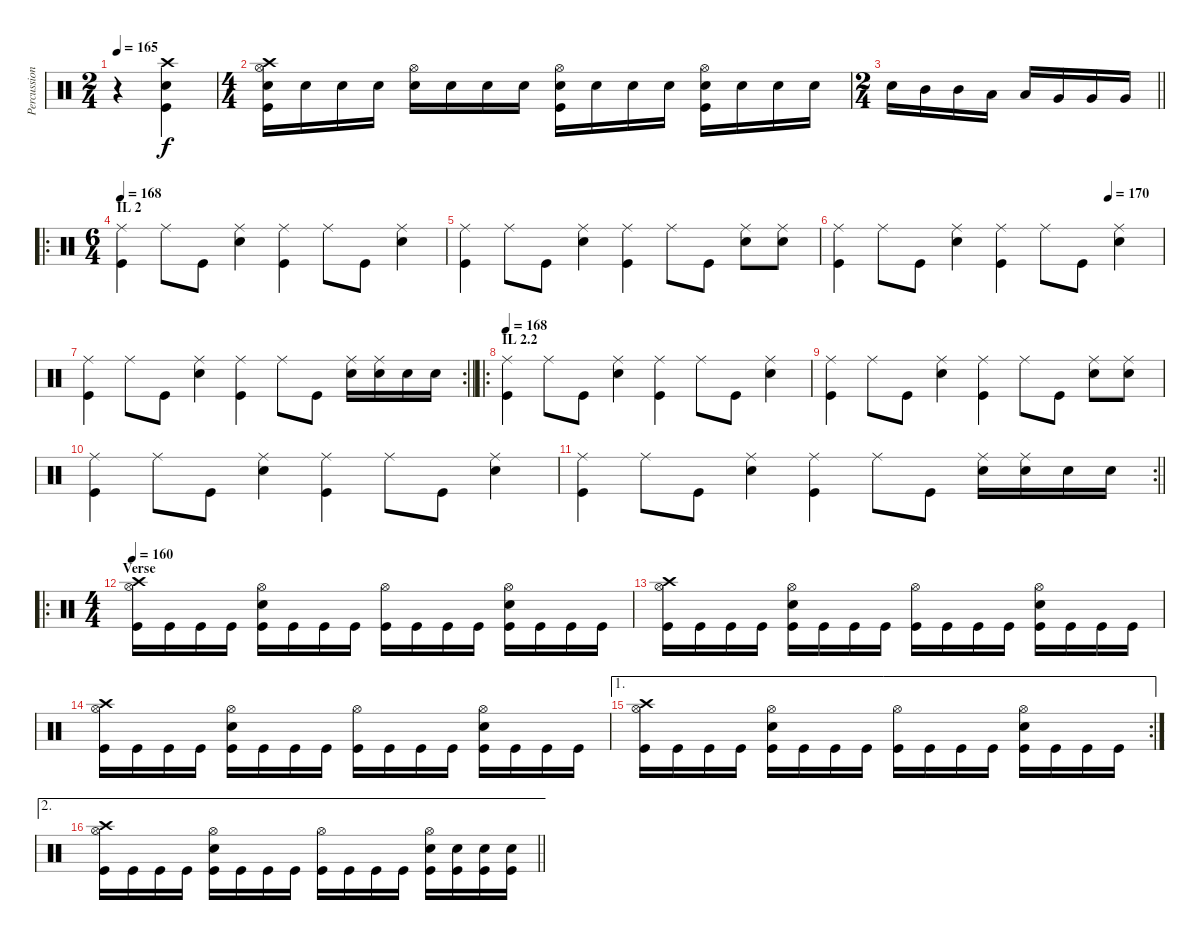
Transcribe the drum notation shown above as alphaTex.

\track ("Percussion" "Percussion") {instrument percussion}
\staff {score}
\articulation defaults
\ts (2 4)
\tempo 165
\clef neutral
\ks c
r.4{dy f} ("Crash high (hit)" "Electric Snare (hit)" "Kick (hit)").4 |
\ts (4 4)
("Crash high (hit)" "Hi-Hat (open)" "Electric Snare (hit)" "Kick (hit)").16 "Electric Snare (hit)".16 "Electric Snare (hit)".16 "Electric Snare (hit)".16 ("Hi-Hat (open)" "Electric Snare (hit)").16 "Electric Snare (hit)".16 "Electric Snare (hit)".16 "Electric Snare (hit)".16 ("Hi-Hat (open)" "Electric Snare (hit)" "Kick (hit)").16 "Electric Snare (hit)".16 "Electric Snare (hit)".16 "Electric Snare (hit)".16 ("Hi-Hat (open)" "Electric Snare (hit)" "Kick (hit)").16 "Electric Snare (hit)".16 "Electric Snare (hit)".16 "Electric Snare (hit)".16 |
\ts (2 4)
\barLineRight lightlight "Electric Snare (hit)".16 "Mid Tom (hit)".16 "Mid Tom (hit)".16 "Low Tom (hit)".16 "Low Tom (hit)".16 "Very Low Tom (hit)".16 "Very Low Tom (hit)".16 "Very Low Tom (hit)".16
|
\ro
\ts (6 4)
\section ("" "IL 2")
\tempo 168
("Ride (middle)" "Kick (hit)").4 "Ride (middle)".8 "Kick (hit)".8 ("Ride (middle)" "Electric Snare (hit)").4 ("Ride (middle)" "Kick (hit)").4 "Ride (middle)".8 "Kick (hit)".8 ("Ride (middle)" "Electric Snare (hit)").4 |
("Ride (middle)" "Kick (hit)").4 "Ride (middle)".8 "Kick (hit)".8 ("Ride (middle)" "Electric Snare (hit)").4 ("Ride (middle)" "Kick (hit)").4 "Ride (middle)".8 "Kick (hit)".8 ("Ride (middle)" "Electric Snare (hit)").8 ("Ride (middle)" "Electric Snare (hit)").8 |
\tempo (170 0.8333333333333334)
("Ride (middle)" "Kick (hit)").4 "Ride (middle)".8 "Kick (hit)".8 ("Ride (middle)" "Electric Snare (hit)").4 ("Ride (middle)" "Kick (hit)").4 "Ride (middle)".8 "Kick (hit)".8 ("Ride (middle)" "Electric Snare (hit)").4 |
\rc 2
\barLineRight lightlight
("Ride (middle)" "Kick (hit)").4 "Ride (middle)".8 "Kick (hit)".8 ("Ride (middle)" "Electric Snare (hit)").4 ("Ride (middle)" "Kick (hit)").4 "Ride (middle)".8 "Kick (hit)".8 ("Ride (middle)" "Electric Snare (hit)").16 ("Ride (middle)" "Electric Snare (hit)").16 "Electric Snare (hit)".16 "Electric Snare (hit)".16 |
\ro
\section ("" "IL 2.2")
\tempo 168
("Ride (middle)" "Kick (hit)").4 "Ride (middle)".8 "Kick (hit)".8 ("Ride (middle)" "Electric Snare (hit)").4 ("Ride (middle)" "Kick (hit)").4 "Ride (middle)".8 "Kick (hit)".8 ("Ride (middle)" "Electric Snare (hit)").4 |
("Ride (middle)" "Kick (hit)").4 "Ride (middle)".8 "Kick (hit)".8 ("Ride (middle)" "Electric Snare (hit)").4 ("Ride (middle)" "Kick (hit)").4 "Ride (middle)".8 "Kick (hit)".8 ("Ride (middle)" "Electric Snare (hit)").8 ("Ride (middle)" "Electric Snare (hit)").8 |
("Ride (middle)" "Kick (hit)").4 "Ride (middle)".8 "Kick (hit)".8 ("Ride (middle)" "Electric Snare (hit)").4 ("Ride (middle)" "Kick (hit)").4 "Ride (middle)".8 "Kick (hit)".8 ("Ride (middle)" "Electric Snare (hit)").4 |
\rc 2
\barLineRight lightlight
("Ride (middle)" "Kick (hit)").4 "Ride (middle)".8 "Kick (hit)".8 ("Ride (middle)" "Electric Snare (hit)").4 ("Ride (middle)" "Kick (hit)").4 "Ride (middle)".8 "Kick (hit)".8 ("Ride (middle)" "Electric Snare (hit)").16 ("Ride (middle)" "Electric Snare (hit)").16 "Electric Snare (hit)".16 "Electric Snare (hit)".16 |
\ro
\ts (4 4)
\section ("" "Verse")
\tempo 160
("Crash high (hit)" "Hi-Hat (open)" "Kick (hit)").16 "Kick (hit)".16 "Kick (hit)".16 "Kick (hit)".16 ("Electric Snare (hit)" "Hi-Hat (open)" "Kick (hit)").16 "Kick (hit)".16 "Kick (hit)".16 "Kick (hit)".16 ("Hi-Hat (open)" "Kick (hit)").16 "Kick (hit)".16 "Kick (hit)".16 "Kick (hit)".16 ("Electric Snare (hit)" "Hi-Hat (open)" "Kick (hit)").16 "Kick (hit)".16 "Kick (hit)".16 "Kick (hit)".16 |
("Crash high (hit)" "Hi-Hat (open)" "Kick (hit)").16 "Kick (hit)".16 "Kick (hit)".16 "Kick (hit)".16 ("Electric Snare (hit)" "Hi-Hat (open)" "Kick (hit)").16 "Kick (hit)".16 "Kick (hit)".16 "Kick (hit)".16 ("Hi-Hat (open)" "Kick (hit)").16 "Kick (hit)".16 "Kick (hit)".16 "Kick (hit)".16 ("Electric Snare (hit)" "Hi-Hat (open)" "Kick (hit)").16 "Kick (hit)".16 "Kick (hit)".16 "Kick (hit)".16 |
("Crash high (hit)" "Hi-Hat (open)" "Kick (hit)").16 "Kick (hit)".16 "Kick (hit)".16 "Kick (hit)".16 ("Electric Snare (hit)" "Hi-Hat (open)" "Kick (hit)").16 "Kick (hit)".16 "Kick (hit)".16 "Kick (hit)".16 ("Hi-Hat (open)" "Kick (hit)").16 "Kick (hit)".16 "Kick (hit)".16 "Kick (hit)".16 ("Electric Snare (hit)" "Hi-Hat (open)" "Kick (hit)").16 "Kick (hit)".16 "Kick (hit)".16 "Kick (hit)".16 |
\ae 1
\rc 2
("Crash high (hit)" "Hi-Hat (open)" "Kick (hit)").16 "Kick (hit)".16 "Kick (hit)".16 "Kick (hit)".16 ("Electric Snare (hit)" "Hi-Hat (open)" "Kick (hit)").16 "Kick (hit)".16 "Kick (hit)".16 "Kick (hit)".16 ("Hi-Hat (open)" "Kick (hit)").16 "Kick (hit)".16 "Kick (hit)".16 "Kick (hit)".16 ("Electric Snare (hit)" "Hi-Hat (open)" "Kick (hit)").16 "Kick (hit)".16 "Kick (hit)".16 "Kick (hit)".16 |
\ae 2
\barLineRight lightlight
("Crash high (hit)" "Hi-Hat (open)" "Kick (hit)").16 "Kick (hit)".16 "Kick (hit)".16 "Kick (hit)".16 ("Electric Snare (hit)" "Hi-Hat (open)" "Kick (hit)").16 "Kick (hit)".16 "Kick (hit)".16 "Kick (hit)".16 ("Hi-Hat (open)" "Kick (hit)").16 "Kick (hit)".16 "Kick (hit)".16 "Kick (hit)".16 ("Hi-Hat (open)" "Electric Snare (hit)" "Kick (hit)").16 ("Electric Snare (hit)" "Kick (hit)").16 ("Electric Snare (hit)" "Kick (hit)").16 ("Electric Snare (hit)" "Kick (hit)").16
